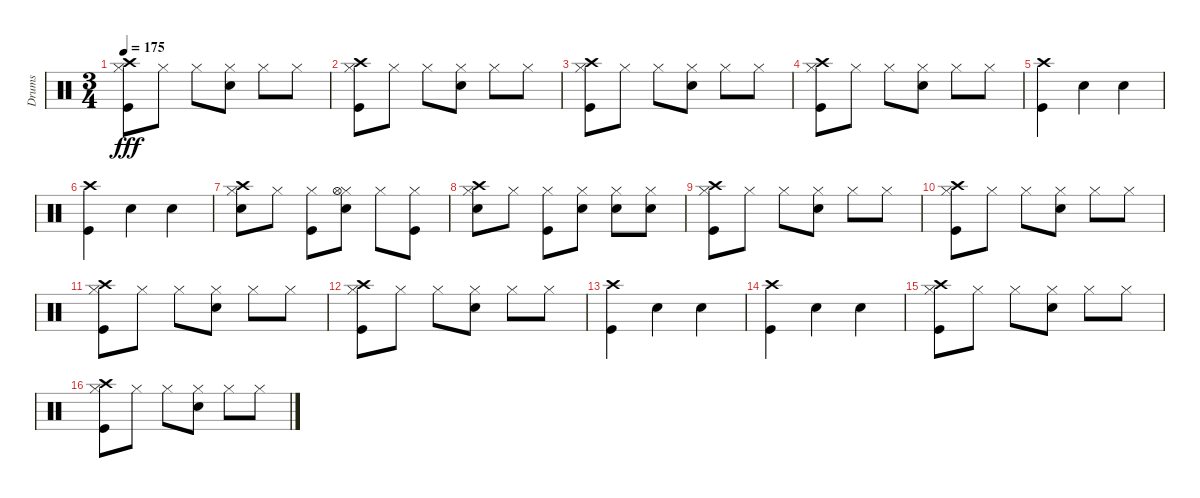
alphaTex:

\track ("Drums" "Drums") {instrument percussion}
\staff {score}
\articulation defaults
\ts (3 4)
\tempo 175
\clef neutral
\ks c
("Hi-Hat (closed)" "Kick (hit)" "Crash high (hit)").8{dy fff} "Hi-Hat (closed)".8 "Hi-Hat (closed)".8 ("Hi-Hat (closed)" "Snare (hit) 2").8 "Hi-Hat (closed)".8 "Hi-Hat (closed)".8 |
("Hi-Hat (closed)" "Kick (hit)" "Crash high (hit)").8 "Hi-Hat (closed)".8 "Hi-Hat (closed)".8 ("Hi-Hat (closed)" "Snare (hit) 2").8 "Hi-Hat (closed)".8 "Hi-Hat (closed)".8 |
("Hi-Hat (closed)" "Kick (hit)" "Crash high (hit)").8 "Hi-Hat (closed)".8 "Hi-Hat (closed)".8 ("Hi-Hat (closed)" "Snare (hit) 2").8 "Hi-Hat (closed)".8 "Hi-Hat (closed)".8 |
("Hi-Hat (closed)" "Kick (hit)" "Crash high (hit)").8 "Hi-Hat (closed)".8 "Hi-Hat (closed)".8 ("Hi-Hat (closed)" "Snare (hit) 2").8 "Hi-Hat (closed)".8 "Hi-Hat (closed)".8 |
("Crash high (hit)" "Kick (hit)").4 "Snare (hit) 2".4 "Snare (hit) 2".4 |
("Crash high (hit)" "Kick (hit)").4 "Snare (hit) 2".4 "Snare (hit) 2".4 |
("Crash high (hit)" "Snare (hit) 2" "Hi-Hat (closed)").8 "Hi-Hat (closed)".8 ("Kick (hit)" "Hi-Hat (closed)").8 ("Snare (hit) 2" "Hi-Hat (closed)" "Hi-Hat (open)").8 "Hi-Hat (closed)".8 ("Kick (hit)" "Hi-Hat (closed)").8 |
("Crash high (hit)" "Snare (hit) 2" "Hi-Hat (closed)").8 "Hi-Hat (closed)".8 ("Kick (hit)" "Hi-Hat (closed)").8 ("Snare (hit) 2" "Hi-Hat (closed)").8 ("Snare (hit) 2" "Hi-Hat (closed)").8 ("Snare (hit) 2" "Hi-Hat (closed)").8 |
("Hi-Hat (closed)" "Kick (hit)" "Crash high (hit)").8 "Hi-Hat (closed)".8 "Hi-Hat (closed)".8 ("Hi-Hat (closed)" "Snare (hit) 2").8 "Hi-Hat (closed)".8 "Hi-Hat (closed)".8 |
("Hi-Hat (closed)" "Kick (hit)" "Crash high (hit)").8 "Hi-Hat (closed)".8 "Hi-Hat (closed)".8 ("Hi-Hat (closed)" "Snare (hit) 2").8 "Hi-Hat (closed)".8 "Hi-Hat (closed)".8 |
("Hi-Hat (closed)" "Kick (hit)" "Crash high (hit)").8 "Hi-Hat (closed)".8 "Hi-Hat (closed)".8 ("Hi-Hat (closed)" "Snare (hit) 2").8 "Hi-Hat (closed)".8 "Hi-Hat (closed)".8 |
("Hi-Hat (closed)" "Kick (hit)" "Crash high (hit)").8 "Hi-Hat (closed)".8 "Hi-Hat (closed)".8 ("Hi-Hat (closed)" "Snare (hit) 2").8 "Hi-Hat (closed)".8 "Hi-Hat (closed)".8 |
("Crash high (hit)" "Kick (hit)").4 "Snare (hit) 2".4 "Snare (hit) 2".4 |
("Crash high (hit)" "Kick (hit)").4 "Snare (hit) 2".4 "Snare (hit) 2".4 |
("Hi-Hat (closed)" "Kick (hit)" "Crash high (hit)").8 "Hi-Hat (closed)".8 "Hi-Hat (closed)".8 ("Hi-Hat (closed)" "Snare (hit) 2").8 "Hi-Hat (closed)".8 "Hi-Hat (closed)".8 |
("Hi-Hat (closed)" "Kick (hit)" "Crash high (hit)").8 "Hi-Hat (closed)".8 "Hi-Hat (closed)".8 ("Hi-Hat (closed)" "Snare (hit) 2").8 "Hi-Hat (closed)".8 "Hi-Hat (closed)".8
